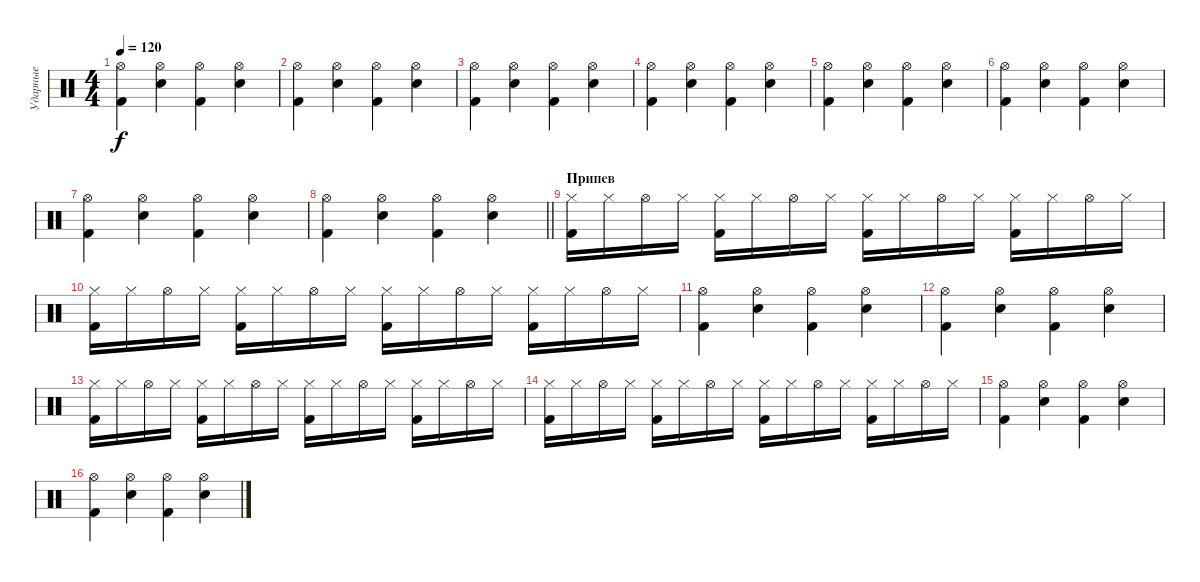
\track ("Ударные" "Ударные") {instrument percussion}
\staff {score}
\articulation defaults
\ts (4 4)
\tempo 120
\clef neutral
\ks c
("Hi-Hat (open)" "Kick (hit) 2").4{dy f} ("Hi-Hat (open)" "Snare (hit) 2").4 ("Hi-Hat (open)" "Kick (hit) 2").4 ("Hi-Hat (open)" "Snare (hit) 2").4 |
("Hi-Hat (open)" "Kick (hit) 2").4 ("Hi-Hat (open)" "Snare (hit) 2").4 ("Hi-Hat (open)" "Kick (hit) 2").4 ("Hi-Hat (open)" "Snare (hit) 2").4 |
("Hi-Hat (open)" "Kick (hit) 2").4 ("Hi-Hat (open)" "Snare (hit) 2").4 ("Hi-Hat (open)" "Kick (hit) 2").4 ("Hi-Hat (open)" "Snare (hit) 2").4 |
("Hi-Hat (open)" "Kick (hit) 2").4 ("Hi-Hat (open)" "Snare (hit) 2").4 ("Hi-Hat (open)" "Kick (hit) 2").4 ("Hi-Hat (open)" "Snare (hit) 2").4 |
("Hi-Hat (open)" "Kick (hit) 2").4 ("Hi-Hat (open)" "Snare (hit) 2").4 ("Hi-Hat (open)" "Kick (hit) 2").4 ("Hi-Hat (open)" "Snare (hit) 2").4 |
("Hi-Hat (open)" "Kick (hit) 2").4 ("Hi-Hat (open)" "Snare (hit) 2").4 ("Hi-Hat (open)" "Kick (hit) 2").4 ("Hi-Hat (open)" "Snare (hit) 2").4 |
("Hi-Hat (open)" "Kick (hit) 2").4 ("Hi-Hat (open)" "Snare (hit) 2").4 ("Hi-Hat (open)" "Kick (hit) 2").4 ("Hi-Hat (open)" "Snare (hit) 2").4 |
\barLineRight lightlight
("Hi-Hat (open)" "Kick (hit) 2").4 ("Hi-Hat (open)" "Snare (hit) 2").4 ("Hi-Hat (open)" "Kick (hit) 2").4 ("Hi-Hat (open)" "Snare (hit) 2").4 |
\section ("" "Припев")
("Hi-Hat (closed)" "Kick (hit) 2").16 "Hi-Hat (closed)".16 "Hi-Hat (open)".16 "Hi-Hat (closed)".16 ("Hi-Hat (closed)" "Kick (hit) 2").16 "Hi-Hat (closed)".16 "Hi-Hat (open)".16 "Hi-Hat (closed)".16 ("Hi-Hat (closed)" "Kick (hit) 2").16 "Hi-Hat (closed)".16 "Hi-Hat (open)".16 "Hi-Hat (closed)".16 ("Hi-Hat (closed)" "Kick (hit) 2").16 "Hi-Hat (closed)".16 "Hi-Hat (open)".16 "Hi-Hat (closed)".16 |
("Hi-Hat (closed)" "Kick (hit) 2").16 "Hi-Hat (closed)".16 "Hi-Hat (open)".16 "Hi-Hat (closed)".16 ("Hi-Hat (closed)" "Kick (hit) 2").16 "Hi-Hat (closed)".16 "Hi-Hat (open)".16 "Hi-Hat (closed)".16 ("Hi-Hat (closed)" "Kick (hit) 2").16 "Hi-Hat (closed)".16 "Hi-Hat (open)".16 "Hi-Hat (closed)".16 ("Hi-Hat (closed)" "Kick (hit) 2").16 "Hi-Hat (closed)".16 "Hi-Hat (open)".16 "Hi-Hat (closed)".16 |
("Hi-Hat (open)" "Kick (hit) 2").4 ("Hi-Hat (open)" "Snare (hit) 2").4 ("Hi-Hat (open)" "Kick (hit) 2").4 ("Hi-Hat (open)" "Snare (hit) 2").4 |
("Hi-Hat (open)" "Kick (hit) 2").4 ("Hi-Hat (open)" "Snare (hit) 2").4 ("Hi-Hat (open)" "Kick (hit) 2").4 ("Hi-Hat (open)" "Snare (hit) 2").4 |
("Hi-Hat (closed)" "Kick (hit) 2").16 "Hi-Hat (closed)".16 "Hi-Hat (open)".16 "Hi-Hat (closed)".16 ("Hi-Hat (closed)" "Kick (hit) 2").16 "Hi-Hat (closed)".16 "Hi-Hat (open)".16 "Hi-Hat (closed)".16 ("Hi-Hat (closed)" "Kick (hit) 2").16 "Hi-Hat (closed)".16 "Hi-Hat (open)".16 "Hi-Hat (closed)".16 ("Hi-Hat (closed)" "Kick (hit) 2").16 "Hi-Hat (closed)".16 "Hi-Hat (open)".16 "Hi-Hat (closed)".16 |
("Hi-Hat (closed)" "Kick (hit) 2").16 "Hi-Hat (closed)".16 "Hi-Hat (open)".16 "Hi-Hat (closed)".16 ("Hi-Hat (closed)" "Kick (hit) 2").16 "Hi-Hat (closed)".16 "Hi-Hat (open)".16 "Hi-Hat (closed)".16 ("Hi-Hat (closed)" "Kick (hit) 2").16 "Hi-Hat (closed)".16 "Hi-Hat (open)".16 "Hi-Hat (closed)".16 ("Hi-Hat (closed)" "Kick (hit) 2").16 "Hi-Hat (closed)".16 "Hi-Hat (open)".16 "Hi-Hat (closed)".16 |
("Hi-Hat (open)" "Kick (hit) 2").4 ("Hi-Hat (open)" "Snare (hit) 2").4 ("Hi-Hat (open)" "Kick (hit) 2").4 ("Hi-Hat (open)" "Snare (hit) 2").4 |
("Hi-Hat (open)" "Kick (hit) 2").4 ("Hi-Hat (open)" "Snare (hit) 2").4 ("Hi-Hat (open)" "Kick (hit) 2").4 ("Hi-Hat (open)" "Snare (hit) 2").4
